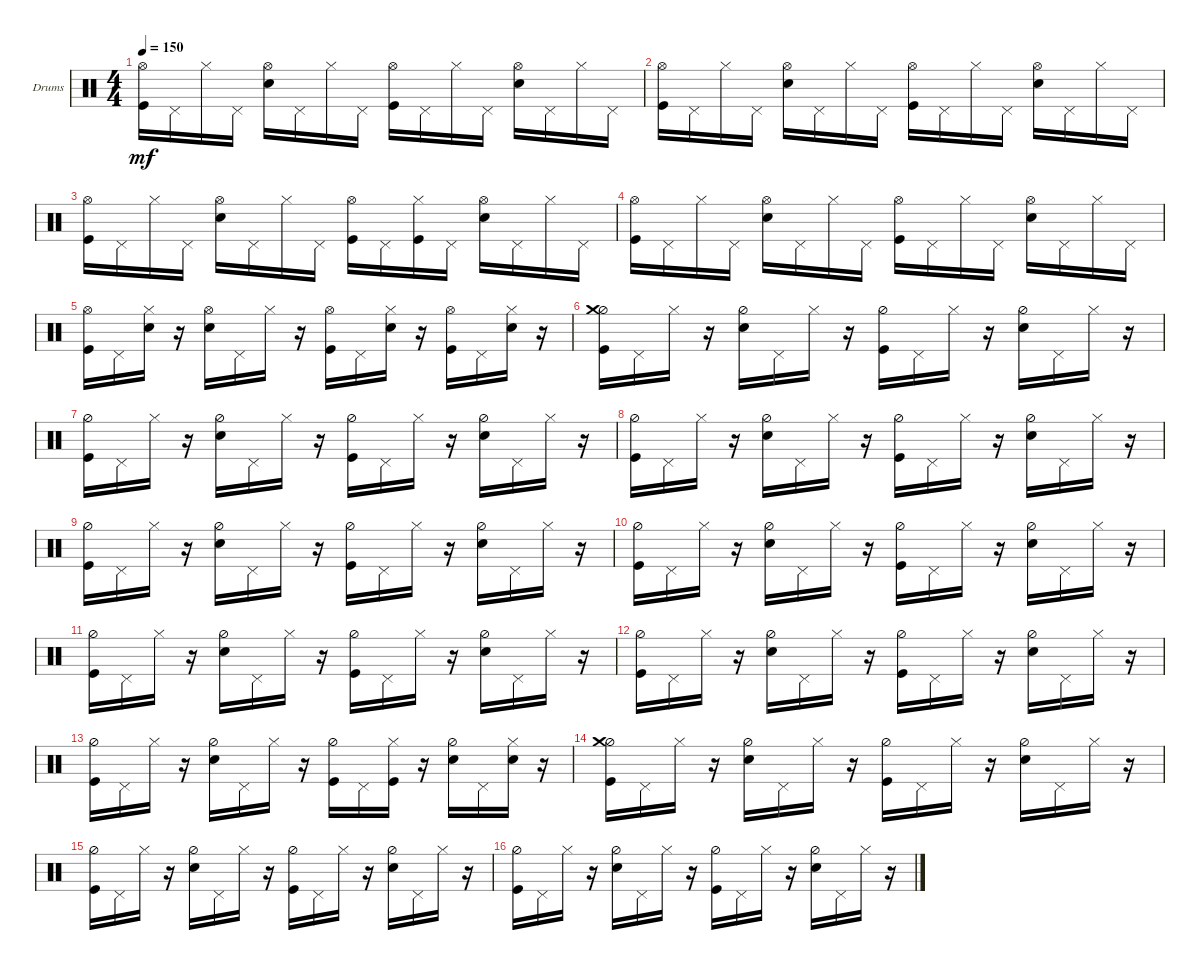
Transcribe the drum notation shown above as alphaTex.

\bracketExtendMode groupsimilarinstruments
\firstSystemTrackNameOrientation horizontal
\otherSystemsTrackNameOrientation horizontal
\track ("Drumkit" "Drums") {solo instrument percussion}
\staff {score}
\articulation defaults
\ts (4 4)
\tempo 150
\clef neutral
\ks c
("Kick (hit)" "Hi-Hat (open)").16{dy mf} "Pedal Hi-Hat (hit)".16 "Hi-Hat (closed)".16 "Pedal Hi-Hat (hit)".16 ("Snare (hit) 2" "Hi-Hat (open)").16 "Pedal Hi-Hat (hit)".16 "Hi-Hat (closed)".16 "Pedal Hi-Hat (hit)".16 ("Kick (hit)" "Hi-Hat (open)").16 "Pedal Hi-Hat (hit)".16 "Hi-Hat (closed)".16 "Pedal Hi-Hat (hit)".16 ("Snare (hit) 2" "Hi-Hat (open)").16 "Pedal Hi-Hat (hit)".16 "Hi-Hat (closed)".16 "Pedal Hi-Hat (hit)".16 |
("Kick (hit)" "Hi-Hat (open)").16 "Pedal Hi-Hat (hit)".16 "Hi-Hat (closed)".16 "Pedal Hi-Hat (hit)".16 ("Snare (hit) 2" "Hi-Hat (open)").16 "Pedal Hi-Hat (hit)".16 "Hi-Hat (closed)".16 "Pedal Hi-Hat (hit)".16 ("Kick (hit)" "Hi-Hat (open)").16 "Pedal Hi-Hat (hit)".16 "Hi-Hat (closed)".16 "Pedal Hi-Hat (hit)".16 ("Snare (hit) 2" "Hi-Hat (open)").16 "Pedal Hi-Hat (hit)".16 "Hi-Hat (closed)".16 "Pedal Hi-Hat (hit)".16 |
("Kick (hit)" "Hi-Hat (open)").16 "Pedal Hi-Hat (hit)".16 "Hi-Hat (closed)".16 "Pedal Hi-Hat (hit)".16 ("Snare (hit) 2" "Hi-Hat (open)").16 "Pedal Hi-Hat (hit)".16 "Hi-Hat (closed)".16 "Pedal Hi-Hat (hit)".16 ("Kick (hit)" "Hi-Hat (open)").16 "Pedal Hi-Hat (hit)".16 ("Hi-Hat (closed)" "Kick (hit)").16 "Pedal Hi-Hat (hit)".16 ("Snare (hit) 2" "Hi-Hat (open)").16 "Pedal Hi-Hat (hit)".16 "Hi-Hat (closed)".16 "Pedal Hi-Hat (hit)".16 |
("Kick (hit)" "Hi-Hat (open)").16 "Pedal Hi-Hat (hit)".16 "Hi-Hat (closed)".16 "Pedal Hi-Hat (hit)".16 ("Snare (hit) 2" "Hi-Hat (open)").16 "Pedal Hi-Hat (hit)".16 "Hi-Hat (closed)".16 "Pedal Hi-Hat (hit)".16 ("Kick (hit)" "Hi-Hat (open)").16 "Pedal Hi-Hat (hit)".16 "Hi-Hat (closed)".16 "Pedal Hi-Hat (hit)".16 ("Snare (hit) 2" "Hi-Hat (open)").16 "Pedal Hi-Hat (hit)".16 "Hi-Hat (closed)".16 "Pedal Hi-Hat (hit)".16 |
("Kick (hit)" "Hi-Hat (open)").16 "Pedal Hi-Hat (hit)".16 ("Hi-Hat (closed)" "Snare (hit) 2").16 r.16 ("Snare (hit) 2" "Hi-Hat (open)").16 "Pedal Hi-Hat (hit)".16 "Hi-Hat (closed)".16 r.16 ("Kick (hit)" "Hi-Hat (open)").16 "Pedal Hi-Hat (hit)".16 ("Hi-Hat (closed)" "Snare (hit) 2").16 r.16 ("Hi-Hat (open)" "Kick (hit)").16 "Pedal Hi-Hat (hit)".16 ("Hi-Hat (closed)" "Snare (hit) 2").16 r.16 |
("Kick (hit)" "Hi-Hat (half)" "Crash medium (hit)").16 "Pedal Hi-Hat (hit)".16 "Hi-Hat (closed)".16 r.16 ("Snare (hit) 2" "Hi-Hat (half)").16 "Pedal Hi-Hat (hit)".16 "Hi-Hat (closed)".16 r.16 ("Kick (hit)" "Hi-Hat (half)").16 "Pedal Hi-Hat (hit)".16 "Hi-Hat (closed)".16 r.16 ("Snare (hit) 2" "Hi-Hat (half)").16 "Pedal Hi-Hat (hit)".16 "Hi-Hat (closed)".16 r.16 |
("Kick (hit)" "Hi-Hat (half)").16 "Pedal Hi-Hat (hit)".16 "Hi-Hat (closed)".16 r.16 ("Snare (hit) 2" "Hi-Hat (half)").16 "Pedal Hi-Hat (hit)".16 "Hi-Hat (closed)".16 r.16 ("Kick (hit)" "Hi-Hat (half)").16 "Pedal Hi-Hat (hit)".16 "Hi-Hat (closed)".16 r.16 ("Snare (hit) 2" "Hi-Hat (half)").16 "Pedal Hi-Hat (hit)".16 "Hi-Hat (closed)".16 r.16 |
("Kick (hit)" "Hi-Hat (half)").16 "Pedal Hi-Hat (hit)".16 "Hi-Hat (closed)".16 r.16 ("Snare (hit) 2" "Hi-Hat (half)").16 "Pedal Hi-Hat (hit)".16 "Hi-Hat (closed)".16 r.16 ("Kick (hit)" "Hi-Hat (half)").16 "Pedal Hi-Hat (hit)".16 "Hi-Hat (closed)".16 r.16 ("Snare (hit) 2" "Hi-Hat (half)").16 "Pedal Hi-Hat (hit)".16 "Hi-Hat (closed)".16 r.16 |
("Kick (hit)" "Hi-Hat (half)").16 "Pedal Hi-Hat (hit)".16 "Hi-Hat (closed)".16 r.16 ("Snare (hit) 2" "Hi-Hat (half)").16 "Pedal Hi-Hat (hit)".16 "Hi-Hat (closed)".16 r.16 ("Kick (hit)" "Hi-Hat (half)").16 "Pedal Hi-Hat (hit)".16 "Hi-Hat (closed)".16 r.16 ("Snare (hit) 2" "Hi-Hat (half)").16 "Pedal Hi-Hat (hit)".16 "Hi-Hat (closed)".16 r.16 |
("Kick (hit)" "Hi-Hat (half)").16 "Pedal Hi-Hat (hit)".16 "Hi-Hat (closed)".16 r.16 ("Snare (hit) 2" "Hi-Hat (half)").16 "Pedal Hi-Hat (hit)".16 "Hi-Hat (closed)".16 r.16 ("Kick (hit)" "Hi-Hat (half)").16 "Pedal Hi-Hat (hit)".16 "Hi-Hat (closed)".16 r.16 ("Snare (hit) 2" "Hi-Hat (half)").16 "Pedal Hi-Hat (hit)".16 "Hi-Hat (closed)".16 r.16 |
("Kick (hit)" "Hi-Hat (half)").16 "Pedal Hi-Hat (hit)".16 "Hi-Hat (closed)".16 r.16 ("Snare (hit) 2" "Hi-Hat (half)").16 "Pedal Hi-Hat (hit)".16 "Hi-Hat (closed)".16 r.16 ("Kick (hit)" "Hi-Hat (half)").16 "Pedal Hi-Hat (hit)".16 "Hi-Hat (closed)".16 r.16 ("Snare (hit) 2" "Hi-Hat (half)").16 "Pedal Hi-Hat (hit)".16 "Hi-Hat (closed)".16 r.16 |
("Kick (hit)" "Hi-Hat (half)").16 "Pedal Hi-Hat (hit)".16 "Hi-Hat (closed)".16 r.16 ("Snare (hit) 2" "Hi-Hat (half)").16 "Pedal Hi-Hat (hit)".16 "Hi-Hat (closed)".16 r.16 ("Kick (hit)" "Hi-Hat (half)").16 "Pedal Hi-Hat (hit)".16 "Hi-Hat (closed)".16 r.16 ("Snare (hit) 2" "Hi-Hat (half)").16 "Pedal Hi-Hat (hit)".16 "Hi-Hat (closed)".16 r.16 |
("Kick (hit)" "Hi-Hat (half)").16 "Pedal Hi-Hat (hit)".16 "Hi-Hat (closed)".16 r.16 ("Snare (hit) 2" "Hi-Hat (half)").16 "Pedal Hi-Hat (hit)".16 "Hi-Hat (closed)".16 r.16 ("Kick (hit)" "Hi-Hat (half)").16 "Pedal Hi-Hat (hit)".16 ("Hi-Hat (closed)" "Kick (hit)").16 r.16 ("Snare (hit) 2" "Hi-Hat (half)").16 "Pedal Hi-Hat (hit)".16 ("Hi-Hat (closed)" "Snare (hit) 2").16 r.16 |
("Kick (hit)" "Hi-Hat (half)" "Crash medium (hit)").16 "Pedal Hi-Hat (hit)".16 "Hi-Hat (closed)".16 r.16 ("Snare (hit) 2" "Hi-Hat (half)").16 "Pedal Hi-Hat (hit)".16 "Hi-Hat (closed)".16 r.16 ("Kick (hit)" "Hi-Hat (half)").16 "Pedal Hi-Hat (hit)".16 "Hi-Hat (closed)".16 r.16 ("Snare (hit) 2" "Hi-Hat (half)").16 "Pedal Hi-Hat (hit)".16 "Hi-Hat (closed)".16 r.16 |
("Kick (hit)" "Hi-Hat (half)").16 "Pedal Hi-Hat (hit)".16 "Hi-Hat (closed)".16 r.16 ("Snare (hit) 2" "Hi-Hat (half)").16 "Pedal Hi-Hat (hit)".16 "Hi-Hat (closed)".16 r.16 ("Kick (hit)" "Hi-Hat (half)").16 "Pedal Hi-Hat (hit)".16 "Hi-Hat (closed)".16 r.16 ("Snare (hit) 2" "Hi-Hat (half)").16 "Pedal Hi-Hat (hit)".16 "Hi-Hat (closed)".16 r.16 |
("Kick (hit)" "Hi-Hat (half)").16 "Pedal Hi-Hat (hit)".16 "Hi-Hat (closed)".16 r.16 ("Snare (hit) 2" "Hi-Hat (half)").16 "Pedal Hi-Hat (hit)".16 "Hi-Hat (closed)".16 r.16 ("Kick (hit)" "Hi-Hat (half)").16 "Pedal Hi-Hat (hit)".16 "Hi-Hat (closed)".16 r.16 ("Snare (hit) 2" "Hi-Hat (half)").16 "Pedal Hi-Hat (hit)".16 "Hi-Hat (closed)".16 r.16
